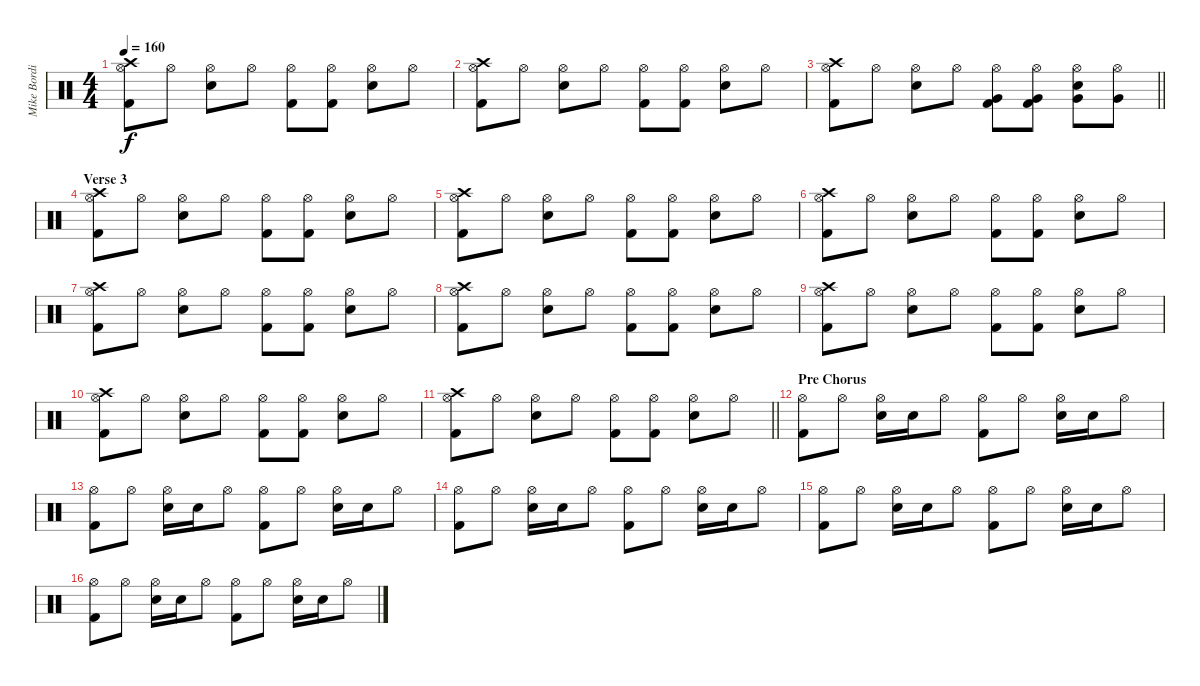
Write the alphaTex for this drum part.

\track ("Mike Bordin - Drums" "Mike Bordi") {instrument percussion}
\staff {score}
\articulation defaults
\ts (4 4)
\tempo 160
\clef neutral
\ks c
("Crash high (hit)" "Hi-Hat (open)" "Kick (hit) 2").8{dy f} "Hi-Hat (open)".8 ("Hi-Hat (open)" "Snare (hit) 2").8 "Hi-Hat (open)".8 ("Hi-Hat (open)" "Kick (hit) 2").8 ("Hi-Hat (open)" "Kick (hit) 2").8 ("Hi-Hat (open)" "Snare (hit) 2").8 "Hi-Hat (open)".8 |
("Crash high (hit)" "Hi-Hat (open)" "Kick (hit) 2").8 "Hi-Hat (open)".8 ("Hi-Hat (open)" "Snare (hit) 2").8 "Hi-Hat (open)".8 ("Hi-Hat (open)" "Kick (hit) 2").8 ("Hi-Hat (open)" "Kick (hit) 2").8 ("Hi-Hat (open)" "Snare (hit) 2").8 "Hi-Hat (open)".8 |
\barLineRight lightlight
("Crash high (hit)" "Hi-Hat (open)" "Kick (hit) 2").8 "Hi-Hat (open)".8 ("Hi-Hat (open)" "Snare (hit) 2").8 "Hi-Hat (open)".8 ("Hi-Hat (open)" "Very Low Tom (hit)" "Kick (hit) 2").8 ("Hi-Hat (open)" "Very Low Tom (hit)" "Kick (hit) 2").8 ("Hi-Hat (open)" "Snare (hit) 2" "Very Low Tom (hit)").8 ("Hi-Hat (open)" "Very Low Tom (hit)").8 |
\section ("" "Verse 3")
("Crash high (hit)" "Hi-Hat (open)" "Kick (hit) 2").8 "Hi-Hat (open)".8 ("Hi-Hat (open)" "Snare (hit) 2").8 "Hi-Hat (open)".8 ("Hi-Hat (open)" "Kick (hit) 2").8 ("Hi-Hat (open)" "Kick (hit) 2").8 ("Hi-Hat (open)" "Snare (hit) 2").8 "Hi-Hat (open)".8 |
("Crash high (hit)" "Hi-Hat (open)" "Kick (hit) 2").8 "Hi-Hat (open)".8 ("Hi-Hat (open)" "Snare (hit) 2").8 "Hi-Hat (open)".8 ("Hi-Hat (open)" "Kick (hit) 2").8 ("Hi-Hat (open)" "Kick (hit) 2").8 ("Hi-Hat (open)" "Snare (hit) 2").8 "Hi-Hat (open)".8 |
("Crash high (hit)" "Hi-Hat (open)" "Kick (hit) 2").8 "Hi-Hat (open)".8 ("Hi-Hat (open)" "Snare (hit) 2").8 "Hi-Hat (open)".8 ("Hi-Hat (open)" "Kick (hit) 2").8 ("Hi-Hat (open)" "Kick (hit) 2").8 ("Hi-Hat (open)" "Snare (hit) 2").8 "Hi-Hat (open)".8 |
("Crash high (hit)" "Hi-Hat (open)" "Kick (hit) 2").8 "Hi-Hat (open)".8 ("Hi-Hat (open)" "Snare (hit) 2").8 "Hi-Hat (open)".8 ("Hi-Hat (open)" "Kick (hit) 2").8 ("Hi-Hat (open)" "Kick (hit) 2").8 ("Hi-Hat (open)" "Snare (hit) 2").8 "Hi-Hat (open)".8 |
("Crash high (hit)" "Hi-Hat (open)" "Kick (hit) 2").8 "Hi-Hat (open)".8 ("Hi-Hat (open)" "Snare (hit) 2").8 "Hi-Hat (open)".8 ("Hi-Hat (open)" "Kick (hit) 2").8 ("Hi-Hat (open)" "Kick (hit) 2").8 ("Hi-Hat (open)" "Snare (hit) 2").8 "Hi-Hat (open)".8 |
("Crash high (hit)" "Hi-Hat (open)" "Kick (hit) 2").8 "Hi-Hat (open)".8 ("Hi-Hat (open)" "Snare (hit) 2").8 "Hi-Hat (open)".8 ("Hi-Hat (open)" "Kick (hit) 2").8 ("Hi-Hat (open)" "Kick (hit) 2").8 ("Hi-Hat (open)" "Snare (hit) 2").8 "Hi-Hat (open)".8 |
("Crash high (hit)" "Hi-Hat (open)" "Kick (hit) 2").8 "Hi-Hat (open)".8 ("Hi-Hat (open)" "Snare (hit) 2").8 "Hi-Hat (open)".8 ("Hi-Hat (open)" "Kick (hit) 2").8 ("Hi-Hat (open)" "Kick (hit) 2").8 ("Hi-Hat (open)" "Snare (hit) 2").8 "Hi-Hat (open)".8 |
\barLineRight lightlight
("Crash high (hit)" "Hi-Hat (open)" "Kick (hit) 2").8 "Hi-Hat (open)".8 ("Hi-Hat (open)" "Snare (hit) 2").8 "Hi-Hat (open)".8 ("Hi-Hat (open)" "Kick (hit) 2").8 ("Hi-Hat (open)" "Kick (hit) 2").8 ("Hi-Hat (open)" "Snare (hit) 2").8 "Hi-Hat (open)".8 |
\section ("" "Pre Chorus")
("Hi-Hat (open)" "Kick (hit) 2").8 "Hi-Hat (open)".8 ("Hi-Hat (open)" "Snare (hit) 2").16 "Snare (hit) 2".16 "Hi-Hat (open)".8 ("Hi-Hat (open)" "Kick (hit) 2").8 "Hi-Hat (open)".8 ("Hi-Hat (open)" "Snare (hit) 2").16 "Snare (hit) 2".16 "Hi-Hat (open)".8 |
("Hi-Hat (open)" "Kick (hit) 2").8 "Hi-Hat (open)".8 ("Hi-Hat (open)" "Snare (hit) 2").16 "Snare (hit) 2".16 "Hi-Hat (open)".8 ("Hi-Hat (open)" "Kick (hit) 2").8 "Hi-Hat (open)".8 ("Hi-Hat (open)" "Snare (hit) 2").16 "Snare (hit) 2".16 "Hi-Hat (open)".8 |
("Hi-Hat (open)" "Kick (hit) 2").8 "Hi-Hat (open)".8 ("Hi-Hat (open)" "Snare (hit) 2").16 "Snare (hit) 2".16 "Hi-Hat (open)".8 ("Hi-Hat (open)" "Kick (hit) 2").8 "Hi-Hat (open)".8 ("Hi-Hat (open)" "Snare (hit) 2").16 "Snare (hit) 2".16 "Hi-Hat (open)".8 |
("Hi-Hat (open)" "Kick (hit) 2").8 "Hi-Hat (open)".8 ("Hi-Hat (open)" "Snare (hit) 2").16 "Snare (hit) 2".16 "Hi-Hat (open)".8 ("Hi-Hat (open)" "Kick (hit) 2").8 "Hi-Hat (open)".8 ("Hi-Hat (open)" "Snare (hit) 2").16 "Snare (hit) 2".16 "Hi-Hat (open)".8 |
("Hi-Hat (open)" "Kick (hit) 2").8 "Hi-Hat (open)".8 ("Hi-Hat (open)" "Snare (hit) 2").16 "Snare (hit) 2".16 "Hi-Hat (open)".8 ("Hi-Hat (open)" "Kick (hit) 2").8 "Hi-Hat (open)".8 ("Hi-Hat (open)" "Snare (hit) 2").16 "Snare (hit) 2".16 "Hi-Hat (open)".8
